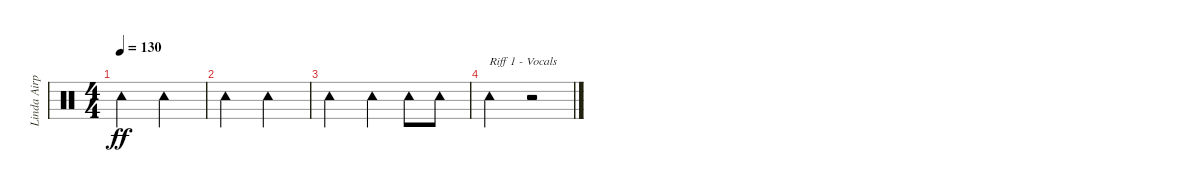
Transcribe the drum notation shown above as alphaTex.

\track ("Linda Airplane" "Linda Airp") {instrument percussion}
\staff {score}
\articulation defaults
\ts (4 4)
\tempo 130
\clef neutral
\ks c "Tambourine (hit)".2{dy ff} "Tambourine (hit)".2
|
"Tambourine (hit)".2 "Tambourine (hit)".2 |
"Tambourine (hit)".2 "Tambourine (hit)".4 "Tambourine (hit)".8 "Tambourine (hit)".8 |
"Tambourine (hit)".2{txt "Riff 1 - Vocals"} r.2
